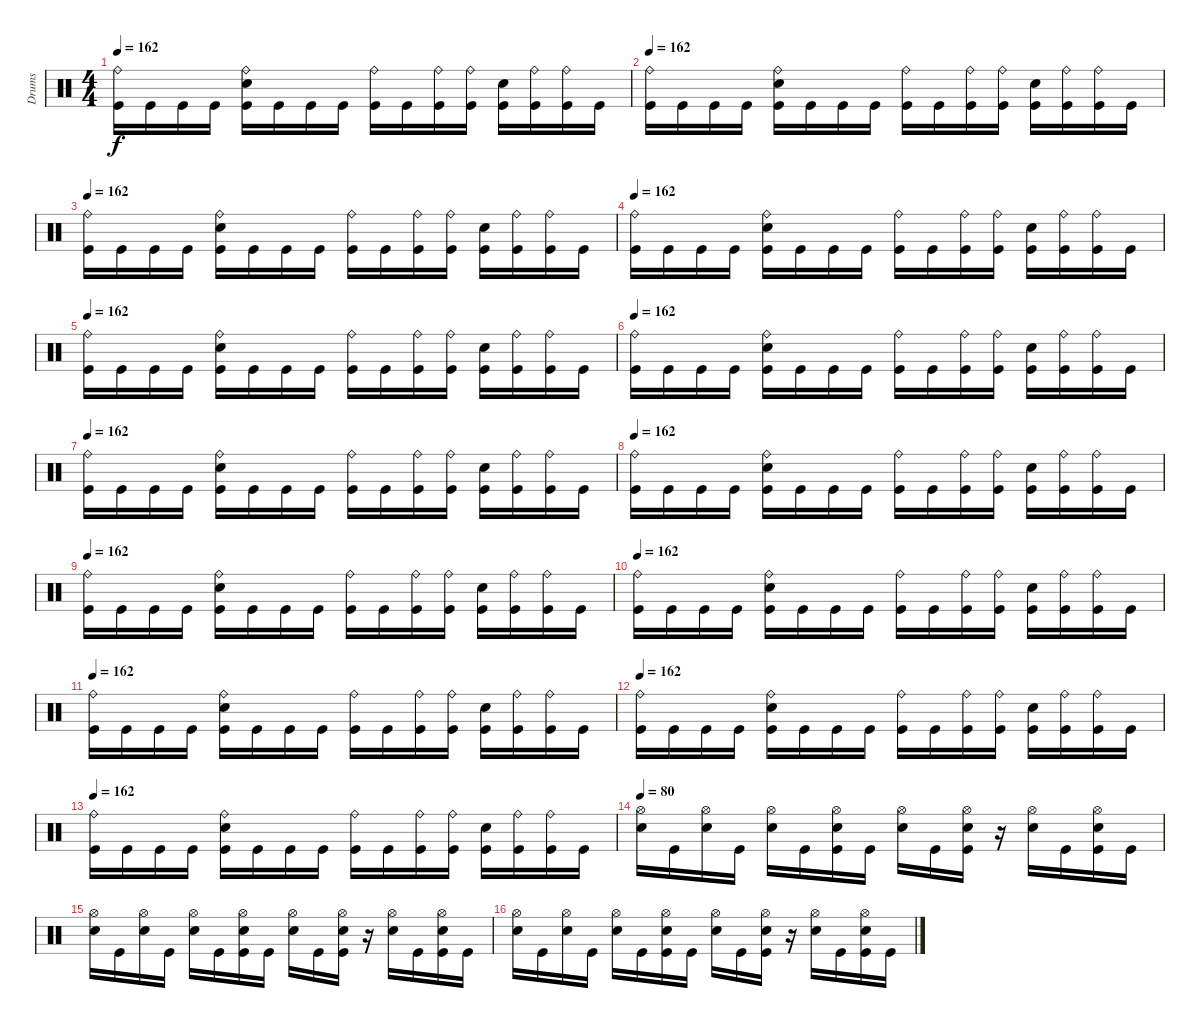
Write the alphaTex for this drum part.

\track ("Drums" "Drums") {instrument percussion}
\staff {score}
\articulation defaults
\ts (4 4)
\tempo 162
\clef neutral
\ks c
("Ride (bell)" "Kick (hit)").16{dy f} "Kick (hit)".16 "Kick (hit)".16 "Kick (hit)".16 ("Ride (bell)" "Electric Snare (hit)" "Kick (hit)").16 "Kick (hit)".16 "Kick (hit)".16 "Kick (hit)".16 ("Ride (bell)" "Kick (hit)").16 "Kick (hit)".16 ("Ride (bell)" "Kick (hit)").16 ("Ride (bell)" "Kick (hit)").16 ("Electric Snare (hit)" "Kick (hit)").16 ("Ride (bell)" "Kick (hit)").16 ("Ride (bell)" "Kick (hit)").16 "Kick (hit)".16 |
\tempo 162
("Ride (bell)" "Kick (hit)").16 "Kick (hit)".16 "Kick (hit)".16 "Kick (hit)".16 ("Ride (bell)" "Electric Snare (hit)" "Kick (hit)").16 "Kick (hit)".16 "Kick (hit)".16 "Kick (hit)".16 ("Ride (bell)" "Kick (hit)").16 "Kick (hit)".16 ("Ride (bell)" "Kick (hit)").16 ("Ride (bell)" "Kick (hit)").16 ("Electric Snare (hit)" "Kick (hit)").16 ("Ride (bell)" "Kick (hit)").16 ("Ride (bell)" "Kick (hit)").16 "Kick (hit)".16 |
\tempo 162
("Ride (bell)" "Kick (hit)").16 "Kick (hit)".16 "Kick (hit)".16 "Kick (hit)".16 ("Ride (bell)" "Electric Snare (hit)" "Kick (hit)").16 "Kick (hit)".16 "Kick (hit)".16 "Kick (hit)".16 ("Ride (bell)" "Kick (hit)").16 "Kick (hit)".16 ("Ride (bell)" "Kick (hit)").16 ("Ride (bell)" "Kick (hit)").16 ("Electric Snare (hit)" "Kick (hit)").16 ("Ride (bell)" "Kick (hit)").16 ("Ride (bell)" "Kick (hit)").16 "Kick (hit)".16 |
\tempo 162
("Ride (bell)" "Kick (hit)").16 "Kick (hit)".16 "Kick (hit)".16 "Kick (hit)".16 ("Ride (bell)" "Electric Snare (hit)" "Kick (hit)").16 "Kick (hit)".16 "Kick (hit)".16 "Kick (hit)".16 ("Ride (bell)" "Kick (hit)").16 "Kick (hit)".16 ("Ride (bell)" "Kick (hit)").16 ("Ride (bell)" "Kick (hit)").16 ("Electric Snare (hit)" "Kick (hit)").16 ("Ride (bell)" "Kick (hit)").16 ("Ride (bell)" "Kick (hit)").16 "Kick (hit)".16 |
\tempo 162
("Ride (bell)" "Kick (hit)").16 "Kick (hit)".16 "Kick (hit)".16 "Kick (hit)".16 ("Ride (bell)" "Electric Snare (hit)" "Kick (hit)").16 "Kick (hit)".16 "Kick (hit)".16 "Kick (hit)".16 ("Ride (bell)" "Kick (hit)").16 "Kick (hit)".16 ("Ride (bell)" "Kick (hit)").16 ("Ride (bell)" "Kick (hit)").16 ("Electric Snare (hit)" "Kick (hit)").16 ("Ride (bell)" "Kick (hit)").16 ("Ride (bell)" "Kick (hit)").16 "Kick (hit)".16 |
\tempo 162
("Ride (bell)" "Kick (hit)").16 "Kick (hit)".16 "Kick (hit)".16 "Kick (hit)".16 ("Ride (bell)" "Electric Snare (hit)" "Kick (hit)").16 "Kick (hit)".16 "Kick (hit)".16 "Kick (hit)".16 ("Ride (bell)" "Kick (hit)").16 "Kick (hit)".16 ("Ride (bell)" "Kick (hit)").16 ("Ride (bell)" "Kick (hit)").16 ("Electric Snare (hit)" "Kick (hit)").16 ("Ride (bell)" "Kick (hit)").16 ("Ride (bell)" "Kick (hit)").16 "Kick (hit)".16 |
\tempo 162
("Ride (bell)" "Kick (hit)").16 "Kick (hit)".16 "Kick (hit)".16 "Kick (hit)".16 ("Ride (bell)" "Electric Snare (hit)" "Kick (hit)").16 "Kick (hit)".16 "Kick (hit)".16 "Kick (hit)".16 ("Ride (bell)" "Kick (hit)").16 "Kick (hit)".16 ("Ride (bell)" "Kick (hit)").16 ("Ride (bell)" "Kick (hit)").16 ("Electric Snare (hit)" "Kick (hit)").16 ("Ride (bell)" "Kick (hit)").16 ("Ride (bell)" "Kick (hit)").16 "Kick (hit)".16 |
\tempo 162
("Ride (bell)" "Kick (hit)").16 "Kick (hit)".16 "Kick (hit)".16 "Kick (hit)".16 ("Ride (bell)" "Electric Snare (hit)" "Kick (hit)").16 "Kick (hit)".16 "Kick (hit)".16 "Kick (hit)".16 ("Ride (bell)" "Kick (hit)").16 "Kick (hit)".16 ("Ride (bell)" "Kick (hit)").16 ("Ride (bell)" "Kick (hit)").16 ("Electric Snare (hit)" "Kick (hit)").16 ("Ride (bell)" "Kick (hit)").16 ("Ride (bell)" "Kick (hit)").16 "Kick (hit)".16 |
\tempo 162
("Ride (bell)" "Kick (hit)").16 "Kick (hit)".16 "Kick (hit)".16 "Kick (hit)".16 ("Ride (bell)" "Electric Snare (hit)" "Kick (hit)").16 "Kick (hit)".16 "Kick (hit)".16 "Kick (hit)".16 ("Ride (bell)" "Kick (hit)").16 "Kick (hit)".16 ("Ride (bell)" "Kick (hit)").16 ("Ride (bell)" "Kick (hit)").16 ("Electric Snare (hit)" "Kick (hit)").16 ("Ride (bell)" "Kick (hit)").16 ("Ride (bell)" "Kick (hit)").16 "Kick (hit)".16 |
\tempo 162
("Ride (bell)" "Kick (hit)").16 "Kick (hit)".16 "Kick (hit)".16 "Kick (hit)".16 ("Ride (bell)" "Electric Snare (hit)" "Kick (hit)").16 "Kick (hit)".16 "Kick (hit)".16 "Kick (hit)".16 ("Ride (bell)" "Kick (hit)").16 "Kick (hit)".16 ("Ride (bell)" "Kick (hit)").16 ("Ride (bell)" "Kick (hit)").16 ("Electric Snare (hit)" "Kick (hit)").16 ("Ride (bell)" "Kick (hit)").16 ("Ride (bell)" "Kick (hit)").16 "Kick (hit)".16 |
\tempo 162
("Ride (bell)" "Kick (hit)").16 "Kick (hit)".16 "Kick (hit)".16 "Kick (hit)".16 ("Ride (bell)" "Electric Snare (hit)" "Kick (hit)").16 "Kick (hit)".16 "Kick (hit)".16 "Kick (hit)".16 ("Ride (bell)" "Kick (hit)").16 "Kick (hit)".16 ("Ride (bell)" "Kick (hit)").16 ("Ride (bell)" "Kick (hit)").16 ("Electric Snare (hit)" "Kick (hit)").16 ("Ride (bell)" "Kick (hit)").16 ("Ride (bell)" "Kick (hit)").16 "Kick (hit)".16 |
\tempo 162
("Ride (bell)" "Kick (hit)").16 "Kick (hit)".16 "Kick (hit)".16 "Kick (hit)".16 ("Ride (bell)" "Electric Snare (hit)" "Kick (hit)").16 "Kick (hit)".16 "Kick (hit)".16 "Kick (hit)".16 ("Ride (bell)" "Kick (hit)").16 "Kick (hit)".16 ("Ride (bell)" "Kick (hit)").16 ("Ride (bell)" "Kick (hit)").16 ("Electric Snare (hit)" "Kick (hit)").16 ("Ride (bell)" "Kick (hit)").16 ("Ride (bell)" "Kick (hit)").16 "Kick (hit)".16 |
\tempo 162
("Ride (bell)" "Kick (hit)").16 "Kick (hit)".16 "Kick (hit)".16 "Kick (hit)".16 ("Ride (bell)" "Electric Snare (hit)" "Kick (hit)").16 "Kick (hit)".16 "Kick (hit)".16 "Kick (hit)".16 ("Ride (bell)" "Kick (hit)").16 "Kick (hit)".16 ("Ride (bell)" "Kick (hit)").16 ("Ride (bell)" "Kick (hit)").16 ("Electric Snare (hit)" "Kick (hit)").16 ("Ride (bell)" "Kick (hit)").16 ("Ride (bell)" "Kick (hit)").16 "Kick (hit)".16 |
\tempo 80
("Hi-Hat (open)" "Electric Snare (hit)").16 "Kick (hit)".16 ("Hi-Hat (open)" "Electric Snare (hit)").16 "Kick (hit)".16 ("Hi-Hat (open)" "Electric Snare (hit)").16 "Kick (hit)".16 ("Hi-Hat (open)" "Electric Snare (hit)" "Kick (hit)").16 "Kick (hit)".16 ("Hi-Hat (open)" "Electric Snare (hit)").16 "Kick (hit)".16 ("Hi-Hat (open)" "Electric Snare (hit)" "Kick (hit)").16 r.16 ("Hi-Hat (open)" "Electric Snare (hit)").16 "Kick (hit)".16 ("Hi-Hat (open)" "Electric Snare (hit)" "Kick (hit)").16 "Kick (hit)".16 |
("Hi-Hat (open)" "Electric Snare (hit)").16 "Kick (hit)".16 ("Hi-Hat (open)" "Electric Snare (hit)").16 "Kick (hit)".16 ("Hi-Hat (open)" "Electric Snare (hit)").16 "Kick (hit)".16 ("Hi-Hat (open)" "Electric Snare (hit)" "Kick (hit)").16 "Kick (hit)".16 ("Hi-Hat (open)" "Electric Snare (hit)").16 "Kick (hit)".16 ("Hi-Hat (open)" "Electric Snare (hit)" "Kick (hit)").16 r.16 ("Hi-Hat (open)" "Electric Snare (hit)").16 "Kick (hit)".16 ("Hi-Hat (open)" "Electric Snare (hit)" "Kick (hit)").16 "Kick (hit)".16 |
("Hi-Hat (open)" "Electric Snare (hit)").16 "Kick (hit)".16 ("Hi-Hat (open)" "Electric Snare (hit)").16 "Kick (hit)".16 ("Hi-Hat (open)" "Electric Snare (hit)").16 "Kick (hit)".16 ("Hi-Hat (open)" "Electric Snare (hit)" "Kick (hit)").16 "Kick (hit)".16 ("Hi-Hat (open)" "Electric Snare (hit)").16 "Kick (hit)".16 ("Hi-Hat (open)" "Electric Snare (hit)" "Kick (hit)").16 r.16 ("Hi-Hat (open)" "Electric Snare (hit)").16 "Kick (hit)".16 ("Hi-Hat (open)" "Electric Snare (hit)" "Kick (hit)").16 "Kick (hit)".16
